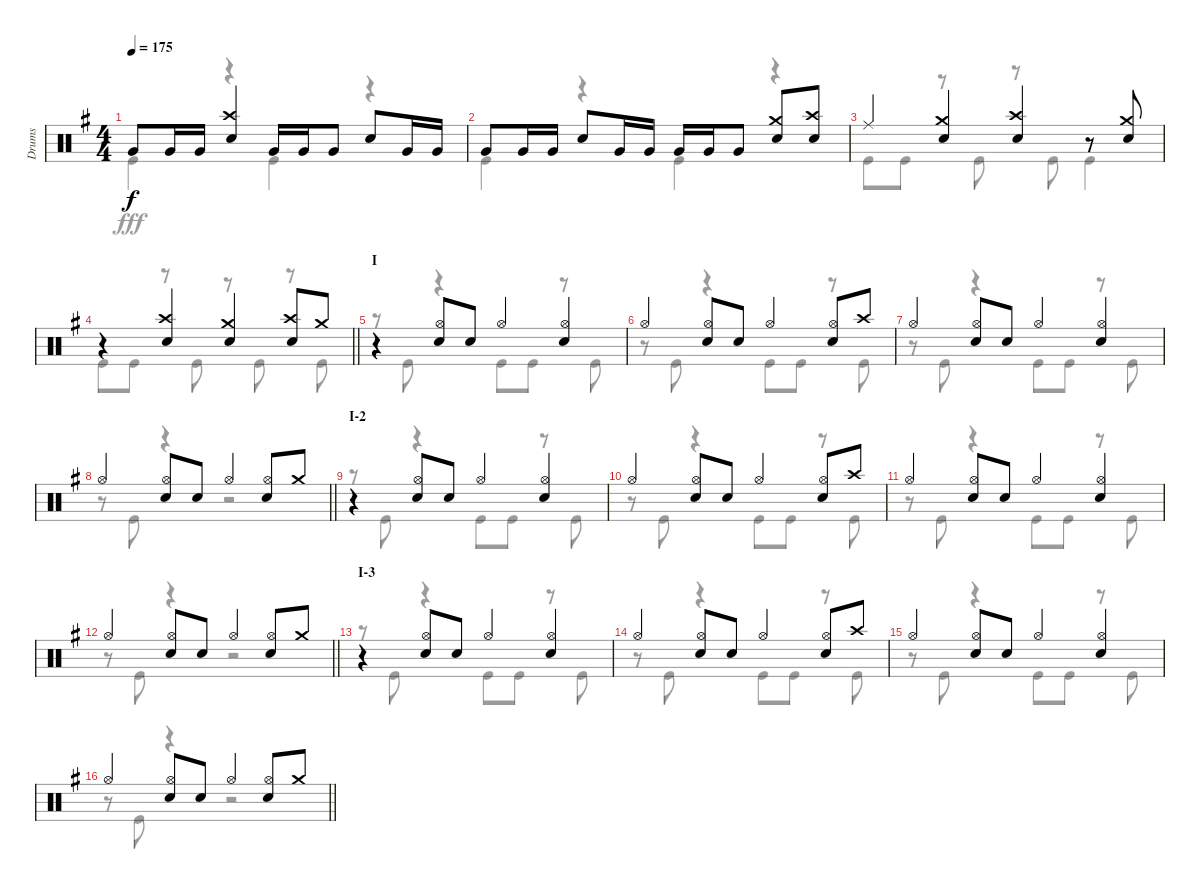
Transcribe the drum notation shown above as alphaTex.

\track ("Drums" "Drums") {instrument percussion}
\staff {score}
\articulation defaults
\voice
\ts (4 4)
\tempo 175
\clef neutral
\ks g "Very Low Tom (hit)".8{dy f} "Very Low Tom (hit)".16 "Very Low Tom (hit)".16
("Crash high (hit)" "Snare (hit) 2").4 "Very Low Tom (hit)".16 "Very Low Tom (hit)".16 "Very Low Tom (hit)".8 "Snare (hit) 2".8 "Very Low Tom (hit)".16 "Very Low Tom (hit)".16 |
"Very Low Tom (hit)".8 "Very Low Tom (hit)".16 "Very Low Tom (hit)".16 "Snare (hit) 2".8 "Very Low Tom (hit)".16 "Very Low Tom (hit)".16 "Very Low Tom (hit)".16 "Very Low Tom (hit)".16 "Very Low Tom (hit)".8 ("Crash medium (hit)" "Snare (hit) 2").8 ("Crash high (hit)" "Snare (hit) 2").8 |
"Ride (middle)".4 ("Crash medium (hit)" "Snare (hit) 2").4 ("Crash high (hit)" "Snare (hit) 2").4 r.8 ("Crash medium (hit)" "Snare (hit) 2").8 |
\barLineRight lightlight
r.4 ("Crash high (hit)" "Snare (hit) 2").4 ("Crash medium (hit)" "Snare (hit) 2").4 ("Crash high (hit)" "Snare (hit) 2").8 "Crash medium (hit)".8 |
\section ("" "I")
r.4 ("Hi-Hat (open)" "Snare (hit) 2").8 "Snare (hit) 2".8 "Hi-Hat (open)".4 ("Hi-Hat (open)" "Snare (hit) 2").4 |
"Hi-Hat (open)".4 ("Hi-Hat (open)" "Snare (hit) 2").8 "Snare (hit) 2".8 "Hi-Hat (open)".4 ("Hi-Hat (open)" "Snare (hit) 2").8 "Crash high (hit)".8 |
"Hi-Hat (open)".4 ("Hi-Hat (open)" "Snare (hit) 2").8 "Snare (hit) 2".8 "Hi-Hat (open)".4 ("Hi-Hat (open)" "Snare (hit) 2").4 |
\barLineRight lightlight "Hi-Hat (open)".4
("Hi-Hat (open)" "Snare (hit) 2").8 "Snare (hit) 2".8 "Hi-Hat (open)".4 ("Hi-Hat (open)" "Snare (hit) 2").8 "Crash medium (hit)".8 |
\section ("" "I-2")
r.4 ("Hi-Hat (open)" "Snare (hit) 2").8 "Snare (hit) 2".8 "Hi-Hat (open)".4 ("Hi-Hat (open)" "Snare (hit) 2").4 |
"Hi-Hat (open)".4 ("Hi-Hat (open)" "Snare (hit) 2").8 "Snare (hit) 2".8 "Hi-Hat (open)".4 ("Hi-Hat (open)" "Snare (hit) 2").8 "Crash high (hit)".8 |
"Hi-Hat (open)".4 ("Hi-Hat (open)" "Snare (hit) 2").8 "Snare (hit) 2".8 "Hi-Hat (open)".4 ("Hi-Hat (open)" "Snare (hit) 2").4 |
\barLineRight lightlight "Hi-Hat (open)".4
("Hi-Hat (open)" "Snare (hit) 2").8 "Snare (hit) 2".8 "Hi-Hat (open)".4 ("Hi-Hat (open)" "Snare (hit) 2").8 "Crash medium (hit)".8 |
\section ("" "I-3")
r.4 ("Hi-Hat (open)" "Snare (hit) 2").8 "Snare (hit) 2".8 "Hi-Hat (open)".4 ("Hi-Hat (open)" "Snare (hit) 2").4 |
"Hi-Hat (open)".4 ("Hi-Hat (open)" "Snare (hit) 2").8 "Snare (hit) 2".8 "Hi-Hat (open)".4 ("Hi-Hat (open)" "Snare (hit) 2").8 "Crash high (hit)".8 |
"Hi-Hat (open)".4 ("Hi-Hat (open)" "Snare (hit) 2").8 "Snare (hit) 2".8 "Hi-Hat (open)".4 ("Hi-Hat (open)" "Snare (hit) 2").4 |
\barLineRight lightlight "Hi-Hat (open)".4
("Hi-Hat (open)" "Snare (hit) 2").8 "Snare (hit) 2".8 "Hi-Hat (open)".4 ("Hi-Hat (open)" "Snare (hit) 2").8 "Crash medium (hit)".8
\voice
\clef neutral
\ottava regular
\simile none
\ks g "Kick (hit)".4{dy fff}
r.4 "Kick (hit)".4 r.4 |
"Kick (hit)".4 r.4 "Kick (hit)".4 r.4 |
"Kick (hit)".8 "Kick (hit)".8 r.8 "Kick (hit)".8 r.8 "Kick (hit)".8 "Kick (hit)".4 |
\barLineRight lightlight "Kick (hit)".8 "Kick (hit)".8
r.8 "Kick (hit)".8 r.8 "Kick (hit)".8 r.8 "Kick (hit)".8 |
r.8 "Kick (hit)".8 r.4 "Kick (hit)".8 "Kick (hit)".8 r.8 "Kick (hit)".8 |
r.8 "Kick (hit)".8 r.4 "Kick (hit)".8 "Kick (hit)".8 r.8 "Kick (hit)".8 |
r.8 "Kick (hit)".8 r.4 "Kick (hit)".8 "Kick (hit)".8 r.8 "Kick (hit)".8 |
\barLineRight lightlight
r.8 "Kick (hit)".8 r.4 r.2 |
r.8 "Kick (hit)".8 r.4 "Kick (hit)".8 "Kick (hit)".8 r.8 "Kick (hit)".8 |
r.8 "Kick (hit)".8 r.4 "Kick (hit)".8 "Kick (hit)".8 r.8 "Kick (hit)".8 |
r.8 "Kick (hit)".8 r.4 "Kick (hit)".8 "Kick (hit)".8 r.8 "Kick (hit)".8 |
\barLineRight lightlight
r.8 "Kick (hit)".8 r.4 r.2 |
r.8 "Kick (hit)".8 r.4 "Kick (hit)".8 "Kick (hit)".8 r.8 "Kick (hit)".8 |
r.8 "Kick (hit)".8 r.4 "Kick (hit)".8 "Kick (hit)".8 r.8 "Kick (hit)".8 |
r.8 "Kick (hit)".8 r.4 "Kick (hit)".8 "Kick (hit)".8 r.8 "Kick (hit)".8 |
\barLineRight lightlight
r.8 "Kick (hit)".8 r.4 r.2
